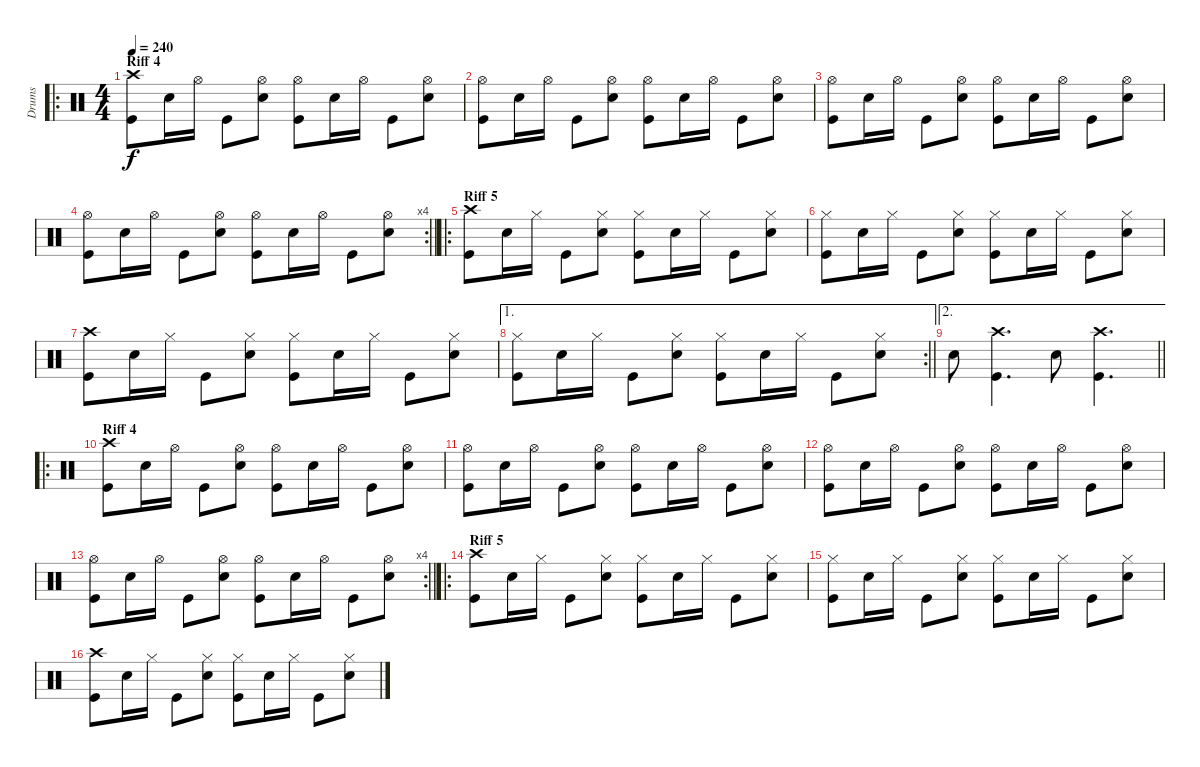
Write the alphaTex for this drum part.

\track ("Drums" "Drums") {instrument percussion}
\staff {score}
\articulation defaults
\ro
\ts (4 4)
\section ("" "Riff 4")
\tempo 240
\clef neutral
\ks c
("Crash high (hit)" "Kick (hit)").8{dy f} "Snare (hit) 2".16 "Hi-Hat (open)".16 "Kick (hit)".8 ("Hi-Hat (open)" "Snare (hit) 2").8 ("Hi-Hat (open)" "Kick (hit)").8 "Snare (hit) 2".16 "Hi-Hat (open)".16 "Kick (hit)".8 ("Hi-Hat (open)" "Snare (hit) 2").8 |
("Hi-Hat (open)" "Kick (hit)").8 "Snare (hit) 2".16 "Hi-Hat (open)".16 "Kick (hit)".8 ("Hi-Hat (open)" "Snare (hit) 2").8 ("Hi-Hat (open)" "Kick (hit)").8 "Snare (hit) 2".16 "Hi-Hat (open)".16 "Kick (hit)".8 ("Hi-Hat (open)" "Snare (hit) 2").8 |
("Hi-Hat (open)" "Kick (hit)").8 "Snare (hit) 2".16 "Hi-Hat (open)".16 "Kick (hit)".8 ("Hi-Hat (open)" "Snare (hit) 2").8 ("Hi-Hat (open)" "Kick (hit)").8 "Snare (hit) 2".16 "Hi-Hat (open)".16 "Kick (hit)".8 ("Hi-Hat (open)" "Snare (hit) 2").8 |
\rc 4
\barLineRight lightlight
("Hi-Hat (open)" "Kick (hit)").8 "Snare (hit) 2".16 "Hi-Hat (open)".16 "Kick (hit)".8 ("Hi-Hat (open)" "Snare (hit) 2").8 ("Hi-Hat (open)" "Kick (hit)").8 "Snare (hit) 2".16 "Hi-Hat (open)".16 "Kick (hit)".8 ("Hi-Hat (open)" "Snare (hit) 2").8 |
\ro
\section ("" "Riff 5")
("Crash high (hit)" "Kick (hit)").8 "Snare (hit) 2".16 "Hi-Hat (closed)".16 "Kick (hit)".8 ("Hi-Hat (closed)" "Snare (hit) 2").8 ("Hi-Hat (closed)" "Kick (hit)").8 "Snare (hit) 2".16 "Hi-Hat (closed)".16 "Kick (hit)".8 ("Hi-Hat (closed)" "Snare (hit) 2").8 |
("Hi-Hat (closed)" "Kick (hit)").8 "Snare (hit) 2".16 "Hi-Hat (closed)".16 "Kick (hit)".8 ("Hi-Hat (closed)" "Snare (hit) 2").8 ("Hi-Hat (closed)" "Kick (hit)").8 "Snare (hit) 2".16 "Hi-Hat (closed)".16 "Kick (hit)".8 ("Hi-Hat (closed)" "Snare (hit) 2").8 |
("Crash high (hit)" "Kick (hit)").8 "Snare (hit) 2".16 "Hi-Hat (closed)".16 "Kick (hit)".8 ("Hi-Hat (closed)" "Snare (hit) 2").8 ("Hi-Hat (closed)" "Kick (hit)").8 "Snare (hit) 2".16 "Hi-Hat (closed)".16 "Kick (hit)".8 ("Hi-Hat (closed)" "Snare (hit) 2").8 |
\ae 1
\rc 2
\barLineRight lightlight
("Hi-Hat (closed)" "Kick (hit)").8 "Snare (hit) 2".16 "Hi-Hat (closed)".16 "Kick (hit)".8 ("Hi-Hat (closed)" "Snare (hit) 2").8 ("Hi-Hat (closed)" "Kick (hit)").8 "Snare (hit) 2".16 "Hi-Hat (closed)".16 "Kick (hit)".8 ("Hi-Hat (closed)" "Snare (hit) 2").8 |
\ae 2
\barLineRight lightlight "Snare (hit) 2".8
("Crash high (hit)" "Kick (hit)").4{d} "Snare (hit) 2".8 ("Crash high (hit)" "Kick (hit)").4{d} |
\ro
\section ("" "Riff 4")
("Crash high (hit)" "Kick (hit)").8 "Snare (hit) 2".16 "Hi-Hat (open)".16 "Kick (hit)".8 ("Hi-Hat (open)" "Snare (hit) 2").8 ("Hi-Hat (open)" "Kick (hit)").8 "Snare (hit) 2".16 "Hi-Hat (open)".16 "Kick (hit)".8 ("Hi-Hat (open)" "Snare (hit) 2").8 |
("Hi-Hat (open)" "Kick (hit)").8 "Snare (hit) 2".16 "Hi-Hat (open)".16 "Kick (hit)".8 ("Hi-Hat (open)" "Snare (hit) 2").8 ("Hi-Hat (open)" "Kick (hit)").8 "Snare (hit) 2".16 "Hi-Hat (open)".16 "Kick (hit)".8 ("Hi-Hat (open)" "Snare (hit) 2").8 |
("Hi-Hat (open)" "Kick (hit)").8 "Snare (hit) 2".16 "Hi-Hat (open)".16 "Kick (hit)".8 ("Hi-Hat (open)" "Snare (hit) 2").8 ("Hi-Hat (open)" "Kick (hit)").8 "Snare (hit) 2".16 "Hi-Hat (open)".16 "Kick (hit)".8 ("Hi-Hat (open)" "Snare (hit) 2").8 |
\rc 4
\barLineRight lightlight
("Hi-Hat (open)" "Kick (hit)").8 "Snare (hit) 2".16 "Hi-Hat (open)".16 "Kick (hit)".8 ("Hi-Hat (open)" "Snare (hit) 2").8 ("Hi-Hat (open)" "Kick (hit)").8 "Snare (hit) 2".16 "Hi-Hat (open)".16 "Kick (hit)".8 ("Hi-Hat (open)" "Snare (hit) 2").8 |
\ro
\section ("" "Riff 5")
("Crash high (hit)" "Kick (hit)").8 "Snare (hit) 2".16 "Hi-Hat (closed)".16 "Kick (hit)".8 ("Hi-Hat (closed)" "Snare (hit) 2").8 ("Hi-Hat (closed)" "Kick (hit)").8 "Snare (hit) 2".16 "Hi-Hat (closed)".16 "Kick (hit)".8 ("Hi-Hat (closed)" "Snare (hit) 2").8 |
("Hi-Hat (closed)" "Kick (hit)").8 "Snare (hit) 2".16 "Hi-Hat (closed)".16 "Kick (hit)".8 ("Hi-Hat (closed)" "Snare (hit) 2").8 ("Hi-Hat (closed)" "Kick (hit)").8 "Snare (hit) 2".16 "Hi-Hat (closed)".16 "Kick (hit)".8 ("Hi-Hat (closed)" "Snare (hit) 2").8 |
("Crash high (hit)" "Kick (hit)").8 "Snare (hit) 2".16 "Hi-Hat (closed)".16 "Kick (hit)".8 ("Hi-Hat (closed)" "Snare (hit) 2").8 ("Hi-Hat (closed)" "Kick (hit)").8 "Snare (hit) 2".16 "Hi-Hat (closed)".16 "Kick (hit)".8 ("Hi-Hat (closed)" "Snare (hit) 2").8
